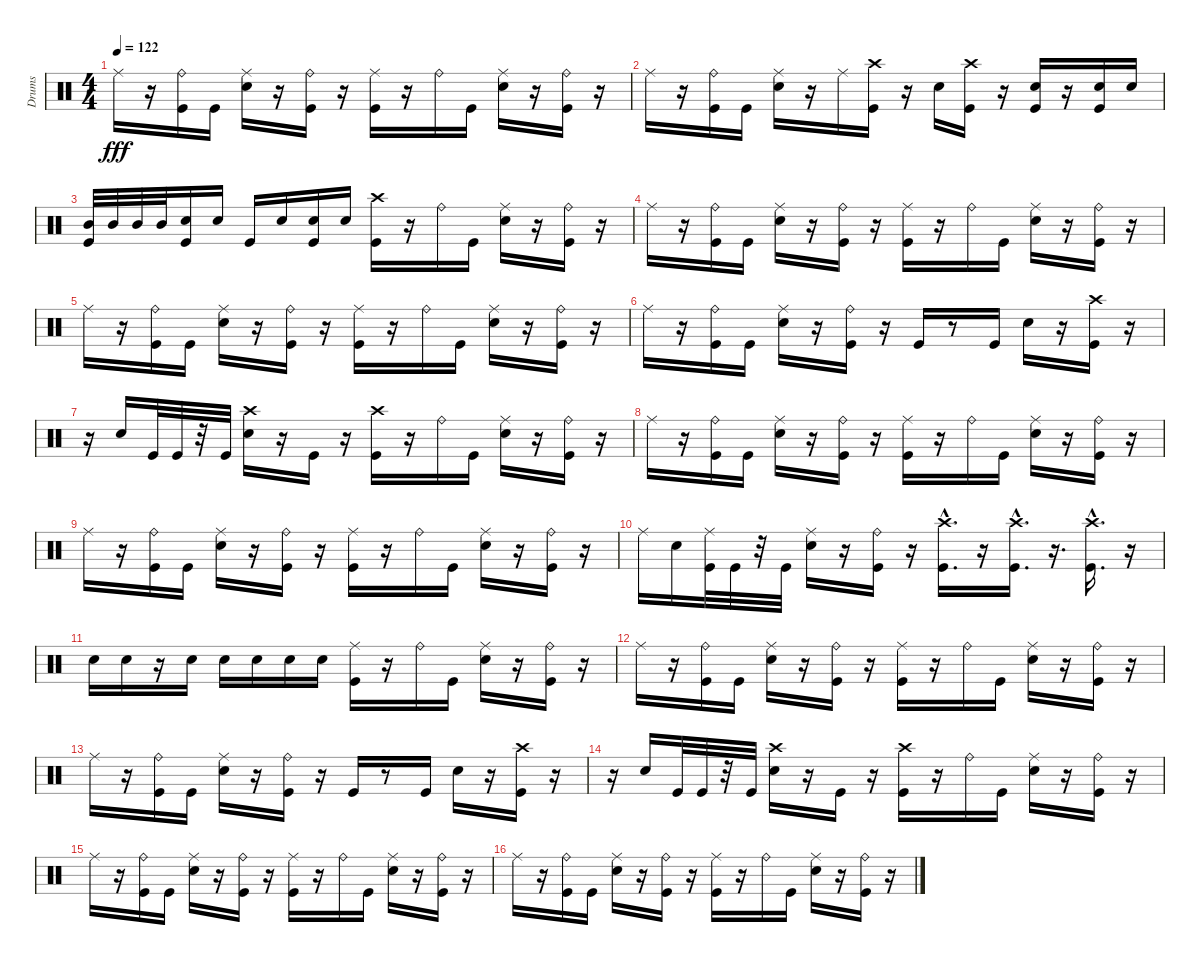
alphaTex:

\track ("Drums" "Drums") {instrument percussion}
\staff {score}
\articulation defaults
\ts (4 4)
\tempo 122
\clef neutral
\ks c "Ride (middle)".16{dy fff}
r.16 ("Ride (bell)" "Kick (hit)").16 "Kick (hit)".16 ("Ride (middle)" "Snare (hit) 2").16 r.16 ("Ride (bell)" "Kick (hit)").16 r.16 ("Kick (hit)" "Ride (middle)").16 r.16 "Ride (bell)".16 "Kick (hit)".16 ("Snare (hit) 2" "Ride (middle)").16 r.16 ("Kick (hit)" "Ride (bell)").16 r.16 |
"Ride (middle)".16 r.16 ("Kick (hit)" "Ride (bell)").16 "Kick (hit)".16 ("Snare (hit) 2" "Ride (middle)").16 r.16 "Ride (middle)".16 ("Kick (hit)" "Crash high (hit)").16 r.16 "Snare (hit) 2".16 ("Crash high (hit)" "Kick (hit)").16 r.16 ("Snare (hit) 2" "Kick (hit)").16 r.16 ("Snare (hit) 2" "Kick (hit)").16 "Snare (hit) 2".16 |
("Kick (hit)" "Mid Tom (hit)").32 "Mid Tom (hit)".32 "Mid Tom (hit)".32 "Mid Tom (hit)".32 ("Snare (hit) 2" "Kick (hit)").16 "Snare (hit) 2".16 "Kick (hit)".16 "Snare (hit) 2".16 ("Snare (hit) 2" "Kick (hit)").16 "Snare (hit) 2".16 ("Crash high (hit)" "Kick (hit)").16 r.16 "Ride (bell)".16 "Kick (hit)".16 ("Snare (hit) 2" "Ride (middle)").16 r.16 ("Kick (hit)" "Ride (bell)").16 r.16 |
"Ride (middle)".16 r.16 ("Kick (hit)" "Ride (bell)").16 "Kick (hit)".16 ("Snare (hit) 2" "Ride (middle)").16 r.16 ("Kick (hit)" "Ride (bell)").16 r.16 ("Ride (middle)" "Kick (hit)").16 r.16 "Ride (bell)".16 "Kick (hit)".16 ("Ride (middle)" "Snare (hit) 2").16 r.16 ("Ride (bell)" "Kick (hit)").16 r.16 |
"Ride (middle)".16 r.16 ("Ride (bell)" "Kick (hit)").16 "Kick (hit)".16 ("Ride (middle)" "Snare (hit) 2").16 r.16 ("Ride (bell)" "Kick (hit)").16 r.16 ("Ride (middle)" "Kick (hit)").16 r.16 "Ride (bell)".16 "Kick (hit)".16 ("Ride (middle)" "Snare (hit) 2").16 r.16 ("Ride (bell)" "Kick (hit)").16 r.16 |
"Ride (middle)".16 r.16 ("Ride (bell)" "Kick (hit)").16 "Kick (hit)".16 ("Ride (middle)" "Snare (hit) 2").16 r.16 ("Ride (bell)" "Kick (hit)").16 r.16 "Kick (hit)".16 r.8 "Kick (hit)".16 "Snare (hit) 2".16 r.16 ("Kick (hit)" "Crash high (hit)").16 r.16 |
r.16 "Snare (hit) 2".16 "Kick (hit)".32 "Kick (hit)".32 r.32 "Kick (hit)".32 ("Snare (hit) 2" "Crash high (hit)").16 r.16 "Kick (hit)".16 r.16 ("Crash high (hit)" "Kick (hit)").16 r.16 "Ride (bell)".16 "Kick (hit)".16 ("Snare (hit) 2" "Ride (middle)").16 r.16 ("Kick (hit)" "Ride (bell)").16 r.16 |
"Ride (middle)".16 r.16 ("Kick (hit)" "Ride (bell)").16 "Kick (hit)".16 ("Snare (hit) 2" "Ride (middle)").16 r.16 ("Kick (hit)" "Ride (bell)").16 r.16 ("Ride (middle)" "Kick (hit)").16 r.16 "Ride (bell)".16 "Kick (hit)".16 ("Ride (middle)" "Snare (hit) 2").16 r.16 ("Ride (bell)" "Kick (hit)").16 r.16 |
"Ride (middle)".16 r.16 ("Ride (bell)" "Kick (hit)").16 "Kick (hit)".16 ("Ride (middle)" "Snare (hit) 2").16 r.16 ("Ride (bell)" "Kick (hit)").16 r.16 ("Kick (hit)" "Ride (middle)").16{volume 12} r.16 "Ride (bell)".16{volume 12} "Kick (hit)".16 ("Snare (hit) 2" "Ride (middle)").16 r.16 ("Kick (hit)" "Ride (bell)").16{volume 12} r.16 |
"Ride (middle)".16{volume 12} "Snare (hit) 2".16 ("Ride (middle)" "Kick (hit)").32 "Kick (hit)".32 r.32 "Kick (hit)".32{volume 11} ("Snare (hit) 2" "Ride (middle)").16 r.16 ("Kick (hit)" "Ride (bell)").16{volume 11} r.16 ("Crash high (hit)"{hac} "Kick (hit)"{hac}).16{d} r.16 ("Crash high (hit)"{hac} "Kick (hit)"{hac}).16{d volume 11} r.16{d} ("Crash high (hit)"{hac} "Kick (hit)"{hac}).16{d volume 11} r.16 |
"Snare (hit) 2".16{volume 10} "Snare (hit) 2".16 r.16 "Snare (hit) 2".16{volume 10} "Snare (hit) 2".16 "Snare (hit) 2".16 "Snare (hit) 2".16{volume 10} "Snare (hit) 2".16 ("Ride (middle)" "Kick (hit)").16 r.16 "Ride (bell)".16{volume 10} "Kick (hit)".16 ("Ride (middle)" "Snare (hit) 2").16{volume 9} r.16 ("Ride (bell)" "Kick (hit)").16 r.16 |
"Ride (middle)".16{volume 9} r.16 ("Ride (bell)" "Kick (hit)").16{volume 9} "Kick (hit)".16 ("Ride (middle)" "Snare (hit) 2").16 r.16 ("Ride (bell)" "Kick (hit)").16{volume 8} r.16 ("Ride (middle)" "Kick (hit)").16{volume 8} r.16 "Ride (bell)".16 "Kick (hit)".16{volume 8} ("Ride (middle)" "Snare (hit) 2").16 r.16 ("Ride (bell)" "Kick (hit)").16 r.16 |
"Ride (middle)".16{volume 8} r.16 ("Ride (bell)" "Kick (hit)").16{volume 7} "Kick (hit)".16 ("Ride (middle)" "Snare (hit) 2").16 r.16 ("Ride (bell)" "Kick (hit)").16{volume 7} r.16 "Kick (hit)".16{volume 7} r.8 "Kick (hit)".16{volume 7} "Snare (hit) 2".16 r.16 ("Kick (hit)" "Crash high (hit)").16{volume 6} r.16 |
r.16 "Snare (hit) 2".16{volume 6} "Kick (hit)".32 "Kick (hit)".32 r.32 "Kick (hit)".32 ("Snare (hit) 2" "Crash high (hit)").16{volume 6} r.16 "Kick (hit)".16 r.16 ("Crash high (hit)" "Kick (hit)").16{volume 6} r.16 "Ride (bell)".16{volume 5} "Kick (hit)".16 ("Snare (hit) 2" "Ride (middle)").16 r.16 ("Kick (hit)" "Ride (bell)").16{volume 5} r.16 |
"Ride (middle)".16 r.16 ("Kick (hit)" "Ride (bell)").16{volume 5} "Kick (hit)".16 ("Snare (hit) 2" "Ride (middle)").16{volume 4} r.16 ("Kick (hit)" "Ride (bell)").16 r.16 ("Ride (middle)" "Kick (hit)").16{volume 4} r.16 "Ride (bell)".16{volume 4} "Kick (hit)".16 ("Ride (middle)" "Snare (hit) 2").16 r.16 ("Ride (bell)" "Kick (hit)").16{volume 4} r.16 |
"Ride (middle)".16{volume 4} r.16 ("Ride (bell)" "Kick (hit)").16 "Kick (hit)".16{volume 3} ("Ride (middle)" "Snare (hit) 2").16 r.16 ("Ride (bell)" "Kick (hit)").16{volume 3} r.16 ("Kick (hit)" "Ride (middle)").16 r.16 "Ride (bell)".16{volume 3} "Kick (hit)".16 ("Snare (hit) 2" "Ride (middle)").16 r.16 ("Kick (hit)" "Ride (bell)").16{volume 2} r.16
